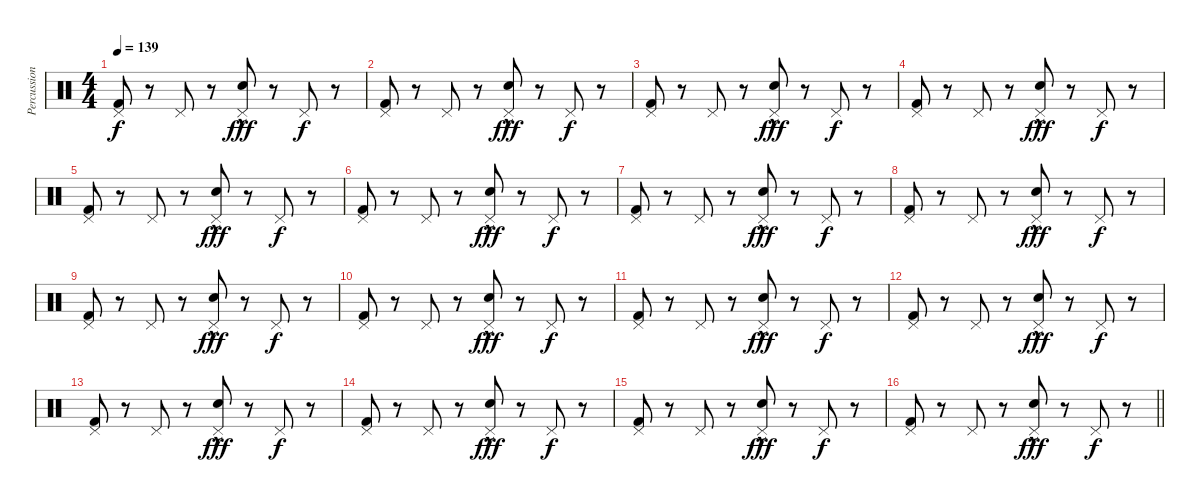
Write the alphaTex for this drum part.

\track ("Percussion" "Percussion") {instrument percussion}
\staff {score}
\articulation defaults
\ts (4 4)
\tempo 139
\clef neutral
\ks c
("Kick (hit) 2" "Pedal Hi-Hat (hit)").8{dy f} r.8 "Pedal Hi-Hat (hit)".8 r.8 ("Electric Snare (hit)"{hac} "Pedal Hi-Hat (hit)").8{dy fff} r.8 "Pedal Hi-Hat (hit)".8{dy f} r.8 |
("Kick (hit) 2" "Pedal Hi-Hat (hit)").8 r.8 "Pedal Hi-Hat (hit)".8 r.8 ("Electric Snare (hit)"{hac} "Pedal Hi-Hat (hit)").8{dy fff} r.8 "Pedal Hi-Hat (hit)".8{dy f} r.8 |
("Kick (hit) 2" "Pedal Hi-Hat (hit)").8 r.8 "Pedal Hi-Hat (hit)".8 r.8 ("Electric Snare (hit)"{hac} "Pedal Hi-Hat (hit)").8{dy fff} r.8 "Pedal Hi-Hat (hit)".8{dy f} r.8 |
("Kick (hit) 2" "Pedal Hi-Hat (hit)").8 r.8 "Pedal Hi-Hat (hit)".8 r.8 ("Electric Snare (hit)"{hac} "Pedal Hi-Hat (hit)").8{dy fff} r.8 "Pedal Hi-Hat (hit)".8{dy f} r.8 |
("Kick (hit) 2" "Pedal Hi-Hat (hit)").8 r.8 "Pedal Hi-Hat (hit)".8 r.8 ("Electric Snare (hit)"{hac} "Pedal Hi-Hat (hit)").8{dy fff} r.8 "Pedal Hi-Hat (hit)".8{dy f} r.8 |
("Kick (hit) 2" "Pedal Hi-Hat (hit)").8 r.8 "Pedal Hi-Hat (hit)".8 r.8 ("Electric Snare (hit)"{hac} "Pedal Hi-Hat (hit)").8{dy fff} r.8 "Pedal Hi-Hat (hit)".8{dy f} r.8 |
("Kick (hit) 2" "Pedal Hi-Hat (hit)").8 r.8 "Pedal Hi-Hat (hit)".8 r.8 ("Electric Snare (hit)"{hac} "Pedal Hi-Hat (hit)").8{dy fff} r.8 "Pedal Hi-Hat (hit)".8{dy f} r.8 |
("Kick (hit) 2" "Pedal Hi-Hat (hit)").8 r.8 "Pedal Hi-Hat (hit)".8 r.8 ("Electric Snare (hit)"{hac} "Pedal Hi-Hat (hit)").8{dy fff} r.8 "Pedal Hi-Hat (hit)".8{dy f} r.8 |
("Kick (hit) 2" "Pedal Hi-Hat (hit)").8 r.8 "Pedal Hi-Hat (hit)".8 r.8 ("Electric Snare (hit)"{hac} "Pedal Hi-Hat (hit)").8{dy fff} r.8 "Pedal Hi-Hat (hit)".8{dy f} r.8 |
("Kick (hit) 2" "Pedal Hi-Hat (hit)").8 r.8 "Pedal Hi-Hat (hit)".8 r.8 ("Electric Snare (hit)"{hac} "Pedal Hi-Hat (hit)").8{dy fff} r.8 "Pedal Hi-Hat (hit)".8{dy f} r.8 |
("Kick (hit) 2" "Pedal Hi-Hat (hit)").8 r.8 "Pedal Hi-Hat (hit)".8 r.8 ("Electric Snare (hit)"{hac} "Pedal Hi-Hat (hit)").8{dy fff} r.8 "Pedal Hi-Hat (hit)".8{dy f} r.8 |
("Kick (hit) 2" "Pedal Hi-Hat (hit)").8 r.8 "Pedal Hi-Hat (hit)".8 r.8 ("Electric Snare (hit)"{hac} "Pedal Hi-Hat (hit)").8{dy fff} r.8 "Pedal Hi-Hat (hit)".8{dy f} r.8 |
("Kick (hit) 2" "Pedal Hi-Hat (hit)").8 r.8 "Pedal Hi-Hat (hit)".8 r.8 ("Electric Snare (hit)"{hac} "Pedal Hi-Hat (hit)").8{dy fff} r.8 "Pedal Hi-Hat (hit)".8{dy f} r.8 |
("Kick (hit) 2" "Pedal Hi-Hat (hit)").8 r.8 "Pedal Hi-Hat (hit)".8 r.8 ("Electric Snare (hit)"{hac} "Pedal Hi-Hat (hit)").8{dy fff} r.8 "Pedal Hi-Hat (hit)".8{dy f} r.8 |
("Kick (hit) 2" "Pedal Hi-Hat (hit)").8 r.8 "Pedal Hi-Hat (hit)".8 r.8 ("Electric Snare (hit)"{hac} "Pedal Hi-Hat (hit)").8{dy fff} r.8 "Pedal Hi-Hat (hit)".8{dy f} r.8 |
\barLineRight lightlight
("Kick (hit) 2" "Pedal Hi-Hat (hit)").8 r.8 "Pedal Hi-Hat (hit)".8 r.8 ("Electric Snare (hit)"{hac} "Pedal Hi-Hat (hit)").8{dy fff} r.8 "Pedal Hi-Hat (hit)".8{dy f} r.8
